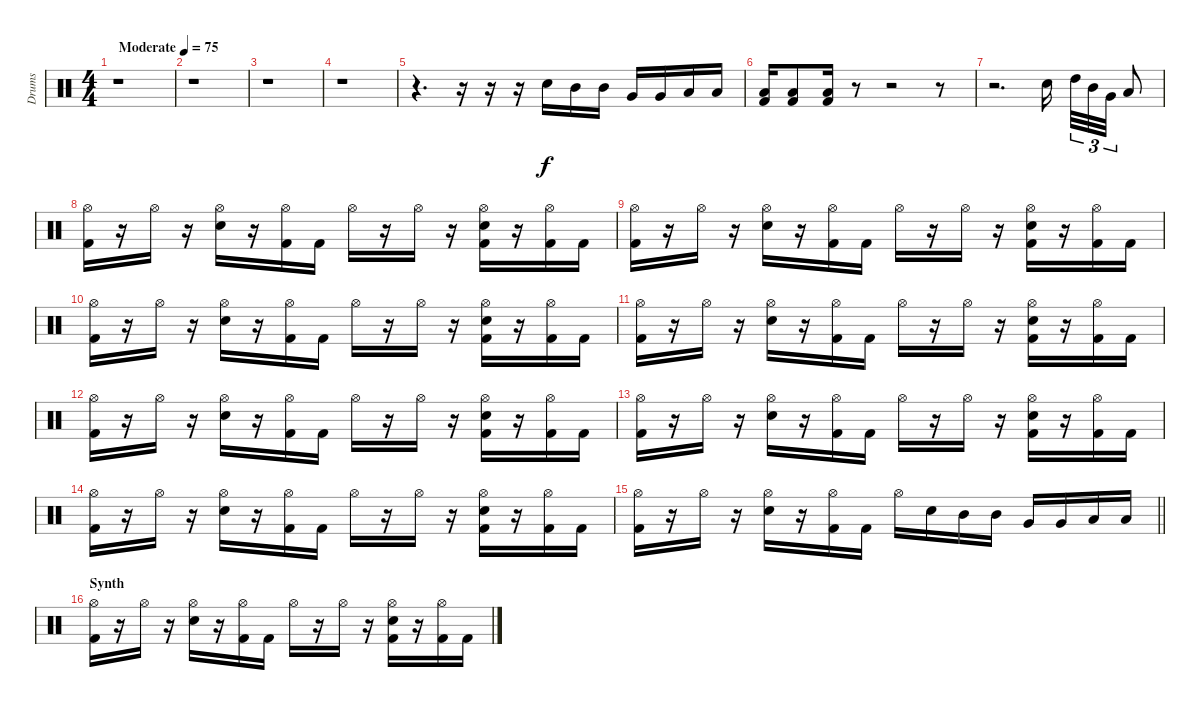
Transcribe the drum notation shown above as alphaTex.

\track ("Drums" "Drums") {instrument percussion}
\staff {score}
\articulation defaults
\ts (4 4)
\tempo (75 "Moderate")
\clef neutral
\ks c
r.1{dy f} |
r.1 |
r.1 |
r.1 |
r.4{d} r.16 r.16 r.16 "Electric Snare (hit)".16 "Mid Tom (hit)".16 "Mid Tom (hit)".16 "Very Low Tom (hit)".16 "Very Low Tom (hit)".16 "Low Floor Tom (hit)".16 "Low Floor Tom (hit)".16 |
("Low Floor Tom (hit)" "Kick (hit) 2").16 ("Low Floor Tom (hit)" "Kick (hit) 2").8 ("Low Floor Tom (hit)" "Kick (hit) 2").16 r.8 r.2 r.8 |
r.2{d} "Electric Snare (hit)".16{beam splitsecondary} "High Tom (hit)".32{tu (3 2)} "Mid Tom (hit)".32{tu (3 2)} "Very Low Tom (hit)".32{tu (3 2)} "Low Floor Tom (hit)".8 |
("Hi-Hat (open)" "Kick (hit) 2").16 r.16 "Hi-Hat (open)".16 r.16 ("Hi-Hat (open)" "Snare (hit) 2").16 r.16 ("Hi-Hat (open)" "Kick (hit) 2").16 "Kick (hit) 2".16 "Hi-Hat (open)".16 r.16 "Hi-Hat (open)".16 r.16 ("Hi-Hat (open)" "Snare (hit) 2" "Kick (hit) 2").16 r.16 ("Hi-Hat (open)" "Kick (hit) 2").16 "Kick (hit) 2".16 |
("Hi-Hat (open)" "Kick (hit) 2").16 r.16 "Hi-Hat (open)".16 r.16 ("Hi-Hat (open)" "Snare (hit) 2").16 r.16 ("Hi-Hat (open)" "Kick (hit) 2").16 "Kick (hit) 2".16 "Hi-Hat (open)".16 r.16 "Hi-Hat (open)".16 r.16 ("Hi-Hat (open)" "Snare (hit) 2" "Kick (hit) 2").16 r.16 ("Hi-Hat (open)" "Kick (hit) 2").16 "Kick (hit) 2".16 |
("Hi-Hat (open)" "Kick (hit) 2").16 r.16 "Hi-Hat (open)".16 r.16 ("Hi-Hat (open)" "Snare (hit) 2").16 r.16 ("Hi-Hat (open)" "Kick (hit) 2").16 "Kick (hit) 2".16 "Hi-Hat (open)".16 r.16 "Hi-Hat (open)".16 r.16 ("Hi-Hat (open)" "Snare (hit) 2" "Kick (hit) 2").16 r.16 ("Hi-Hat (open)" "Kick (hit) 2").16 "Kick (hit) 2".16 |
("Hi-Hat (open)" "Kick (hit) 2").16 r.16 "Hi-Hat (open)".16 r.16 ("Hi-Hat (open)" "Snare (hit) 2").16 r.16 ("Hi-Hat (open)" "Kick (hit) 2").16 "Kick (hit) 2".16 "Hi-Hat (open)".16 r.16 "Hi-Hat (open)".16 r.16 ("Hi-Hat (open)" "Snare (hit) 2" "Kick (hit) 2").16 r.16 ("Hi-Hat (open)" "Kick (hit) 2").16 "Kick (hit) 2".16 |
("Hi-Hat (open)" "Kick (hit) 2").16 r.16 "Hi-Hat (open)".16 r.16 ("Hi-Hat (open)" "Snare (hit) 2").16 r.16 ("Hi-Hat (open)" "Kick (hit) 2").16 "Kick (hit) 2".16 "Hi-Hat (open)".16 r.16 "Hi-Hat (open)".16 r.16 ("Hi-Hat (open)" "Snare (hit) 2" "Kick (hit) 2").16 r.16 ("Hi-Hat (open)" "Kick (hit) 2").16 "Kick (hit) 2".16 |
("Hi-Hat (open)" "Kick (hit) 2").16 r.16 "Hi-Hat (open)".16 r.16 ("Hi-Hat (open)" "Snare (hit) 2").16 r.16 ("Hi-Hat (open)" "Kick (hit) 2").16 "Kick (hit) 2".16 "Hi-Hat (open)".16 r.16 "Hi-Hat (open)".16 r.16 ("Hi-Hat (open)" "Snare (hit) 2" "Kick (hit) 2").16 r.16 ("Hi-Hat (open)" "Kick (hit) 2").16 "Kick (hit) 2".16 |
("Hi-Hat (open)" "Kick (hit) 2").16 r.16 "Hi-Hat (open)".16 r.16 ("Hi-Hat (open)" "Snare (hit) 2").16 r.16 ("Hi-Hat (open)" "Kick (hit) 2").16 "Kick (hit) 2".16 "Hi-Hat (open)".16 r.16 "Hi-Hat (open)".16 r.16 ("Hi-Hat (open)" "Snare (hit) 2" "Kick (hit) 2").16 r.16 ("Hi-Hat (open)" "Kick (hit) 2").16 "Kick (hit) 2".16 |
\barLineRight lightlight
("Hi-Hat (open)" "Kick (hit) 2").16 r.16 "Hi-Hat (open)".16 r.16 ("Hi-Hat (open)" "Snare (hit) 2").16 r.16 ("Hi-Hat (open)" "Kick (hit) 2").16 "Kick (hit) 2".16 "Hi-Hat (open)".16 "Electric Snare (hit)".16 "Mid Tom (hit)".16 "Mid Tom (hit)".16 "Very Low Tom (hit)".16 "Very Low Tom (hit)".16 "Low Floor Tom (hit)".16 "Low Floor Tom (hit)".16 |
\section ("" "Synth")
("Hi-Hat (open)" "Kick (hit) 2").16 r.16 "Hi-Hat (open)".16 r.16 ("Hi-Hat (open)" "Snare (hit) 2").16 r.16 ("Hi-Hat (open)" "Kick (hit) 2").16 "Kick (hit) 2".16 "Hi-Hat (open)".16 r.16 "Hi-Hat (open)".16 r.16 ("Hi-Hat (open)" "Snare (hit) 2" "Kick (hit) 2").16 r.16 ("Hi-Hat (open)" "Kick (hit) 2").16 "Kick (hit) 2".16
